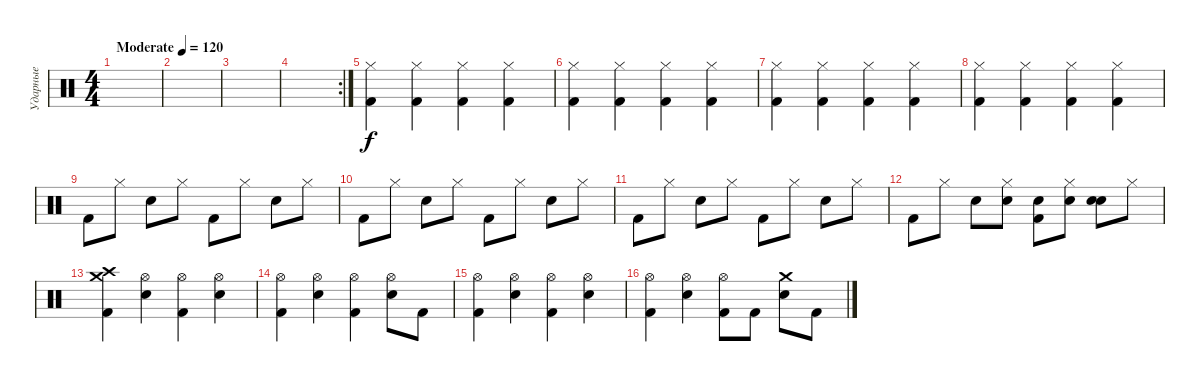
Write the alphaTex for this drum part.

\track ("Ударные" "Ударные") {instrument percussion}
\staff {score}
\articulation defaults
\ts (4 4)
\tempo (120 "Moderate")
\clef neutral
\ks c
|
|
|
\rc 2
|
("Kick (hit) 2" "Hi-Hat (closed)").4 ("Kick (hit) 2" "Hi-Hat (closed)").4 ("Kick (hit) 2" "Hi-Hat (closed)").4 ("Kick (hit) 2" "Hi-Hat (closed)").4 |
("Kick (hit) 2" "Hi-Hat (closed)").4 ("Kick (hit) 2" "Hi-Hat (closed)").4 ("Kick (hit) 2" "Hi-Hat (closed)").4 ("Kick (hit) 2" "Hi-Hat (closed)").4 |
("Kick (hit) 2" "Hi-Hat (closed)").4 ("Kick (hit) 2" "Hi-Hat (closed)").4 ("Kick (hit) 2" "Hi-Hat (closed)").4 ("Kick (hit) 2" "Hi-Hat (closed)").4 |
("Kick (hit) 2" "Hi-Hat (closed)").4 ("Kick (hit) 2" "Hi-Hat (closed)").4 ("Kick (hit) 2" "Hi-Hat (closed)").4 ("Kick (hit) 2" "Hi-Hat (closed)").4 |
"Kick (hit) 2".8 "Hi-Hat (closed)".8 "Electric Snare (hit)".8 "Hi-Hat (closed)".8 "Kick (hit) 2".8 "Hi-Hat (closed)".8 "Electric Snare (hit)".8 "Hi-Hat (closed)".8 |
"Kick (hit) 2".8 "Hi-Hat (closed)".8 "Electric Snare (hit)".8 "Hi-Hat (closed)".8 "Kick (hit) 2".8 "Hi-Hat (closed)".8 "Electric Snare (hit)".8 "Hi-Hat (closed)".8 |
"Kick (hit) 2".8 "Hi-Hat (closed)".8 "Electric Snare (hit)".8 "Hi-Hat (closed)".8 "Kick (hit) 2".8 "Hi-Hat (closed)".8 "Electric Snare (hit)".8 "Hi-Hat (closed)".8 |
"Kick (hit) 2".8 "Hi-Hat (closed)".8 "Electric Snare (hit)".8 ("Hi-Hat (closed)" "Electric Snare (hit)").8 ("Kick (hit) 2" "Electric Snare (hit)").8 ("Hi-Hat (closed)" "Electric Snare (hit)").8 ("Electric Snare (hit)" "Electric Snare (hit)").8 "Hi-Hat (closed)".8 |
("Crash high (hit)" "Crash medium (hit)" "Kick (hit) 2").4 ("Hi-Hat (open)" "Electric Snare (hit)").4 ("Hi-Hat (open)" "Kick (hit) 2").4 ("Hi-Hat (open)" "Electric Snare (hit)").4 |
("Hi-Hat (open)" "Kick (hit) 2").4 ("Hi-Hat (open)" "Electric Snare (hit)").4 ("Hi-Hat (open)" "Kick (hit) 2").4 ("Hi-Hat (open)" "Electric Snare (hit)").8 "Kick (hit) 2".8 |
("Hi-Hat (open)" "Kick (hit) 2").4 ("Hi-Hat (open)" "Electric Snare (hit)").4 ("Hi-Hat (open)" "Kick (hit) 2").4 ("Hi-Hat (open)" "Electric Snare (hit)").4 |
("Hi-Hat (open)" "Kick (hit) 2").4 ("Hi-Hat (open)" "Electric Snare (hit)").4 ("Hi-Hat (open)" "Kick (hit) 2").8 "Kick (hit) 2".8 ("Crash medium (hit)" "Electric Snare (hit)").8 "Kick (hit) 2".8
